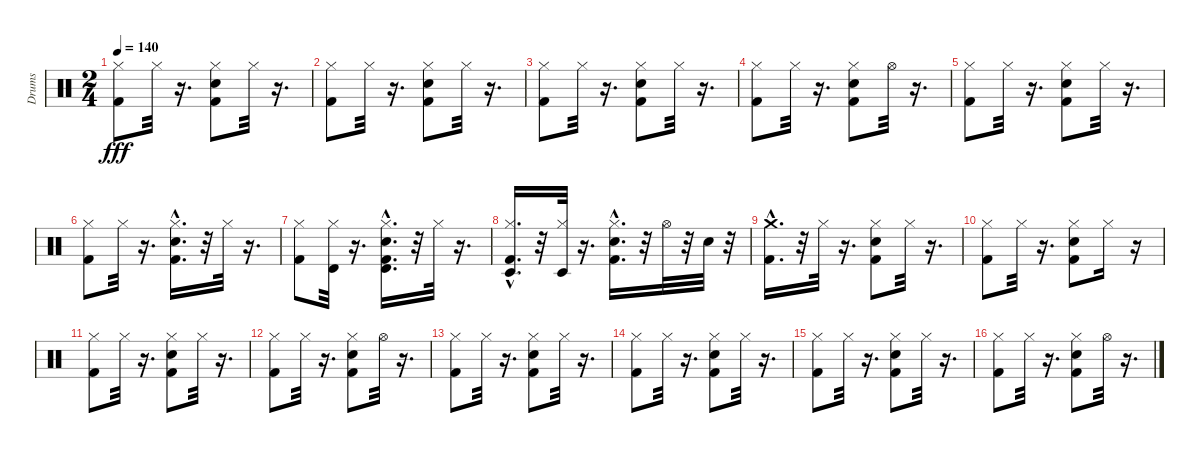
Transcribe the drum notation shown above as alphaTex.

\track ("Drums" "Drums") {instrument percussion}
\staff {score}
\articulation defaults
\ts (2 4)
\tempo 140
\clef neutral
\ks c
("Kick (hit) 2" "Hi-Hat (closed)").8{dy fff} "Hi-Hat (closed)".32 r.16{d} ("Hi-Hat (closed)" "Snare (hit) 2" "Kick (hit) 2").8 "Hi-Hat (closed)".32 r.16{d} |
("Kick (hit) 2" "Hi-Hat (closed)").8 "Hi-Hat (closed)".32 r.16{d} ("Hi-Hat (closed)" "Snare (hit) 2" "Kick (hit) 2").8 "Hi-Hat (closed)".32 r.16{d} |
("Kick (hit) 2" "Hi-Hat (closed)").8 "Hi-Hat (closed)".32 r.16{d} ("Snare (hit) 2" "Kick (hit) 2" "Hi-Hat (closed)").8 "Hi-Hat (closed)".32 r.16{d} |
("Kick (hit) 2" "Hi-Hat (closed)").8 "Hi-Hat (closed)".32 r.16{d} ("Snare (hit) 2" "Kick (hit) 2" "Hi-Hat (closed)").8 "Hi-Hat (open)".32 r.16{d} |
("Kick (hit) 2" "Hi-Hat (closed)").8 "Hi-Hat (closed)".32 r.16{d} ("Snare (hit) 2" "Kick (hit) 2" "Hi-Hat (closed)").8 "Hi-Hat (closed)".32 r.16{d} |
("Kick (hit) 2" "Hi-Hat (closed)").8 "Hi-Hat (closed)".32 r.16{d} ("Hi-Hat (closed)" "Snare (hit) 2"{hac} "Kick (hit) 2"{hac}).16{d} r.32 "Hi-Hat (closed)".32 r.16{d} |
("Kick (hit) 2" "Hi-Hat (closed)").8 ("Timbale high (hit)" "Hi-Hat (closed)").32 r.16{d} ("Timbale high (hit)" "Snare (hit) 2"{hac} "Kick (hit) 2"{hac} "Hi-Hat (closed)").16{d} r.32 "Hi-Hat (closed)".32 r.16{d} |
("Timbale low (hit)" "Hi-Hat (closed)" "Kick (hit) 2"{hac}).16{d} r.32 ("Timbale low (hit)" "Hi-Hat (closed)").32 r.16{d} ("Kick (hit) 2"{hac} "Hi-Hat (closed)" "Snare (hit) 2"{hac}).16{d} r.32 "Hi-Hat (open)".32 r.32 "Snare (hit) 2".32 r.32 |
("Kick (hit) 2"{hac} "Crash medium (hit)").16{d} r.32 "Hi-Hat (closed)".32 r.16{d} ("Kick (hit) 2" "Snare (hit) 2" "Hi-Hat (closed)").8 "Hi-Hat (closed)".32 r.16{d} |
("Kick (hit) 2" "Hi-Hat (closed)").8 "Hi-Hat (closed)".32 r.16{d} ("Kick (hit) 2" "Hi-Hat (closed)" "Snare (hit) 2").8 "Hi-Hat (closed)".16 r.16 |
("Kick (hit) 2" "Hi-Hat (closed)").8 "Hi-Hat (closed)".32 r.16{d} ("Hi-Hat (closed)" "Snare (hit) 2" "Kick (hit) 2").8 "Hi-Hat (closed)".32 r.16{d} |
("Kick (hit) 2" "Hi-Hat (closed)").8 "Hi-Hat (closed)".32 r.16{d} ("Kick (hit) 2" "Snare (hit) 2" "Hi-Hat (closed)").8 "Hi-Hat (open)".32 r.16{d} |
("Kick (hit) 2" "Hi-Hat (closed)").8 "Hi-Hat (closed)".32 r.16{d} ("Snare (hit) 2" "Kick (hit) 2" "Hi-Hat (closed)").8 "Hi-Hat (closed)".32 r.16{d} |
("Kick (hit) 2" "Hi-Hat (closed)").8 "Hi-Hat (closed)".32 r.16{d} ("Kick (hit) 2" "Hi-Hat (closed)" "Snare (hit) 2").8 "Hi-Hat (closed)".32 r.16{d} |
("Kick (hit) 2" "Hi-Hat (closed)").8 "Hi-Hat (closed)".32 r.16{d} ("Snare (hit) 2" "Kick (hit) 2" "Hi-Hat (closed)").8 "Hi-Hat (closed)".32 r.16{d} |
("Kick (hit) 2" "Hi-Hat (closed)").8 "Hi-Hat (closed)".32 r.16{d} ("Snare (hit) 2" "Kick (hit) 2" "Hi-Hat (closed)").8 "Hi-Hat (open)".32 r.16{d}
